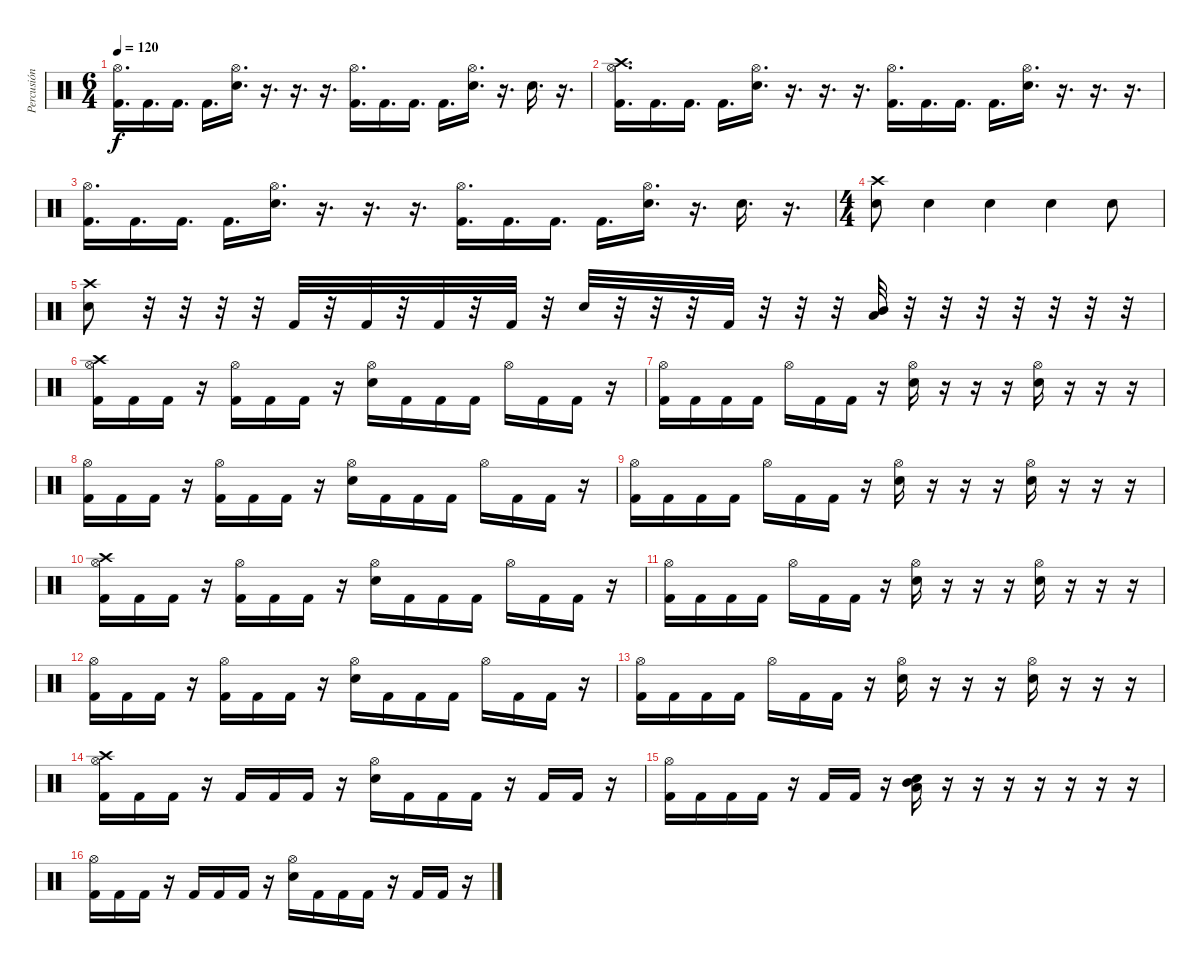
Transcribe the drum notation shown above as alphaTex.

\track ("Percusión" "Percusión") {instrument percussion}
\staff {score}
\articulation defaults
\ts (6 4)
\tempo 120
\clef neutral
\ks c
("Hi-Hat (open)" "Kick (hit) 2").16{d dy f} "Kick (hit) 2".16{d} "Kick (hit) 2".16{d} "Kick (hit) 2".16{d} ("Hi-Hat (open)" "Snare (hit) 2").16{d} r.16{d} r.16{d} r.16{d} ("Hi-Hat (open)" "Kick (hit) 2").16{d} "Kick (hit) 2".16{d} "Kick (hit) 2".16{d} "Kick (hit) 2".16{d} ("Hi-Hat (open)" "Snare (hit) 2").16{d} r.16{d} "Snare (hit) 2".16{d} r.16{d} |
("Hi-Hat (open)" "Kick (hit) 2" "Crash high (hit)").16{d} "Kick (hit) 2".16{d} "Kick (hit) 2".16{d} "Kick (hit) 2".16{d} ("Hi-Hat (open)" "Snare (hit) 2").16{d} r.16{d} r.16{d} r.16{d} ("Hi-Hat (open)" "Kick (hit) 2").16{d} "Kick (hit) 2".16{d} "Kick (hit) 2".16{d} "Kick (hit) 2".16{d} ("Hi-Hat (open)" "Snare (hit) 2").16{d} r.16{d} r.16{d} r.16{d} |
("Hi-Hat (open)" "Kick (hit) 2").16{d} "Kick (hit) 2".16{d} "Kick (hit) 2".16{d} "Kick (hit) 2".16{d} ("Hi-Hat (open)" "Snare (hit) 2").16{d} r.16{d} r.16{d} r.16{d} ("Hi-Hat (open)" "Kick (hit) 2").16{d} "Kick (hit) 2".16{d} "Kick (hit) 2".16{d} "Kick (hit) 2".16{d} ("Hi-Hat (open)" "Snare (hit) 2").16{d} r.16{d} "Snare (hit) 2".16{d} r.16{d} |
\ts (4 4)
("Snare (hit) 2" "Crash high (hit)").8 "Snare (hit) 2".4 "Snare (hit) 2".4 "Snare (hit) 2".4 "Snare (hit) 2".8 |
("Snare (hit) 2" "Crash high (hit)").8 r.32 r.32 r.32 r.32 "Kick (hit) 2".32 r.32 "Kick (hit) 2".32 r.32 "Kick (hit) 2".32 r.32 "Kick (hit) 2".32 r.32 "Electric Snare (hit)".32 r.32 r.32 r.32 "Kick (hit) 2".32 r.32 r.32 r.32 ("Low Tom (hit)" "Mid Tom (hit)").32 r.32 r.32 r.32 r.32 r.32 r.32 r.32 |
("Hi-Hat (open)" "Kick (hit) 2" "Crash high (hit)").16 "Kick (hit) 2".16 "Kick (hit) 2".16 r.16 ("Hi-Hat (open)" "Kick (hit) 2").16 "Kick (hit) 2".16 "Kick (hit) 2".16 r.16 ("Hi-Hat (open)" "Electric Snare (hit)").16 "Kick (hit) 2".16 "Kick (hit) 2".16 "Kick (hit) 2".16 "Hi-Hat (open)".16 "Kick (hit) 2".16 "Kick (hit) 2".16 r.16 |
("Hi-Hat (open)" "Kick (hit) 2").16 "Kick (hit) 2".16 "Kick (hit) 2".16 "Kick (hit) 2".16 "Hi-Hat (open)".16 "Kick (hit) 2".16 "Kick (hit) 2".16 r.16 ("Hi-Hat (open)" "Electric Snare (hit)").16 r.16 r.16 r.16 ("Hi-Hat (open)" "Electric Snare (hit)").16 r.16 r.16 r.16 |
("Hi-Hat (open)" "Kick (hit) 2").16 "Kick (hit) 2".16 "Kick (hit) 2".16 r.16 ("Hi-Hat (open)" "Kick (hit) 2").16 "Kick (hit) 2".16 "Kick (hit) 2".16 r.16 ("Hi-Hat (open)" "Electric Snare (hit)").16 "Kick (hit) 2".16 "Kick (hit) 2".16 "Kick (hit) 2".16 "Hi-Hat (open)".16 "Kick (hit) 2".16 "Kick (hit) 2".16 r.16 |
("Hi-Hat (open)" "Kick (hit) 2").16 "Kick (hit) 2".16 "Kick (hit) 2".16 "Kick (hit) 2".16 "Hi-Hat (open)".16 "Kick (hit) 2".16 "Kick (hit) 2".16 r.16 ("Hi-Hat (open)" "Electric Snare (hit)").16 r.16 r.16 r.16 ("Hi-Hat (open)" "Electric Snare (hit)").16 r.16 r.16 r.16 |
("Hi-Hat (open)" "Kick (hit) 2" "Crash high (hit)").16 "Kick (hit) 2".16 "Kick (hit) 2".16 r.16 ("Hi-Hat (open)" "Kick (hit) 2").16 "Kick (hit) 2".16 "Kick (hit) 2".16 r.16 ("Hi-Hat (open)" "Electric Snare (hit)").16 "Kick (hit) 2".16 "Kick (hit) 2".16 "Kick (hit) 2".16 "Hi-Hat (open)".16 "Kick (hit) 2".16 "Kick (hit) 2".16 r.16 |
("Hi-Hat (open)" "Kick (hit) 2").16 "Kick (hit) 2".16 "Kick (hit) 2".16 "Kick (hit) 2".16 "Hi-Hat (open)".16 "Kick (hit) 2".16 "Kick (hit) 2".16 r.16 ("Hi-Hat (open)" "Electric Snare (hit)").16 r.16 r.16 r.16 ("Hi-Hat (open)" "Electric Snare (hit)").16 r.16 r.16 r.16 |
("Hi-Hat (open)" "Kick (hit) 2").16 "Kick (hit) 2".16 "Kick (hit) 2".16 r.16 ("Hi-Hat (open)" "Kick (hit) 2").16 "Kick (hit) 2".16 "Kick (hit) 2".16 r.16 ("Hi-Hat (open)" "Electric Snare (hit)").16 "Kick (hit) 2".16 "Kick (hit) 2".16 "Kick (hit) 2".16 "Hi-Hat (open)".16 "Kick (hit) 2".16 "Kick (hit) 2".16 r.16 |
("Hi-Hat (open)" "Kick (hit) 2").16 "Kick (hit) 2".16 "Kick (hit) 2".16 "Kick (hit) 2".16 "Hi-Hat (open)".16 "Kick (hit) 2".16 "Kick (hit) 2".16 r.16 ("Hi-Hat (open)" "Electric Snare (hit)").16 r.16 r.16 r.16 ("Hi-Hat (open)" "Electric Snare (hit)").16 r.16 r.16 r.16 |
("Hi-Hat (open)" "Kick (hit) 2" "Crash high (hit)").16 "Kick (hit) 2".16 "Kick (hit) 2".16 r.16 "Kick (hit) 2".16 "Kick (hit) 2".16 "Kick (hit) 2".16 r.16 ("Hi-Hat (open)" "Electric Snare (hit)").16 "Kick (hit) 2".16 "Kick (hit) 2".16 "Kick (hit) 2".16 r.16 "Kick (hit) 2".16 "Kick (hit) 2".16 r.16 |
("Hi-Hat (open)" "Kick (hit) 2").16 "Kick (hit) 2".16 "Kick (hit) 2".16 "Kick (hit) 2".16 r.16 "Kick (hit) 2".16 "Kick (hit) 2".16 r.16 ("Electric Snare (hit)" "Low Tom (hit)" "Mid Tom (hit)").16 r.16 r.16 r.16 r.16 r.16 r.16 r.16 |
("Hi-Hat (open)" "Kick (hit) 2").16 "Kick (hit) 2".16 "Kick (hit) 2".16 r.16 "Kick (hit) 2".16 "Kick (hit) 2".16 "Kick (hit) 2".16 r.16 ("Hi-Hat (open)" "Electric Snare (hit)").16 "Kick (hit) 2".16 "Kick (hit) 2".16 "Kick (hit) 2".16 r.16 "Kick (hit) 2".16 "Kick (hit) 2".16 r.16
